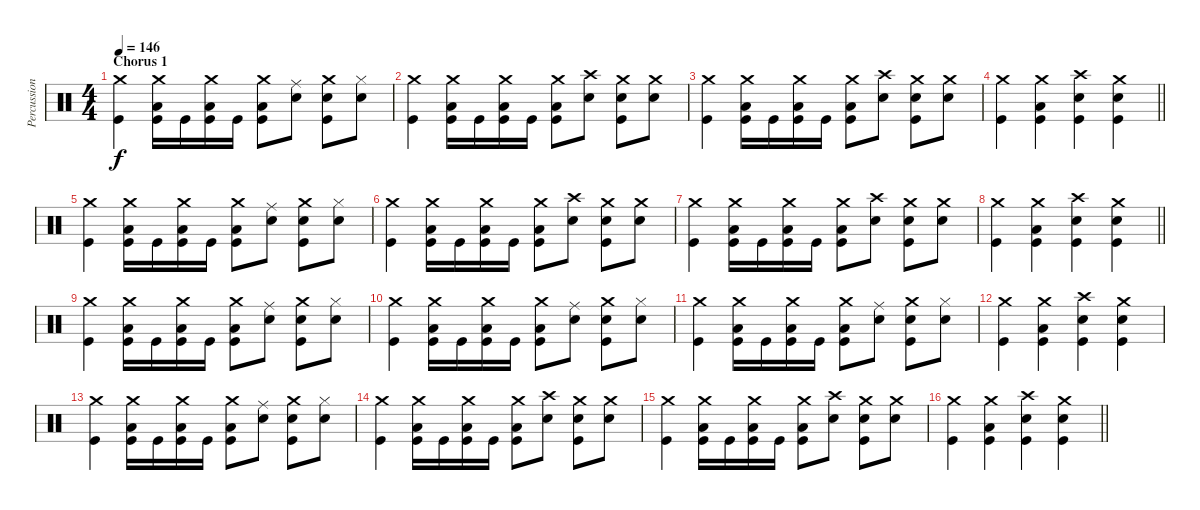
\track ("Percussion" "Percussion") {instrument percussion}
\staff {score}
\articulation defaults
\ts (4 4)
\section ("" "Chorus 1")
\tempo 146
\clef neutral
\ks c
("Crash medium (hit)" "Kick (hit)").4{dy f} ("Crash medium (hit)" "Low Floor Tom (hit)" "Kick (hit)").16 "Kick (hit)".16 ("Crash medium (hit)" "Low Floor Tom (hit)" "Kick (hit)").16 "Kick (hit)".16 ("Crash medium (hit)" "Low Floor Tom (hit)" "Kick (hit)").8 ("Ride (middle)" "Snare (hit) 2").8 ("Crash medium (hit)" "Snare (hit) 2" "Kick (hit)").8 ("Hi-Hat (closed)" "Snare (hit) 2").8 |
("Crash medium (hit)" "Kick (hit)").4 ("Crash medium (hit)" "Low Floor Tom (hit)" "Kick (hit)").16 "Kick (hit)".16 ("Crash medium (hit)" "Low Floor Tom (hit)" "Kick (hit)").16 "Kick (hit)".16 ("Crash medium (hit)" "Low Floor Tom (hit)" "Kick (hit)").8 ("Crash high (hit)" "Snare (hit) 2").8 ("Crash medium (hit)" "Snare (hit) 2" "Kick (hit)").8 ("Crash medium (hit)" "Snare (hit) 2").8 |
("Crash medium (hit)" "Kick (hit)").4 ("Crash medium (hit)" "Low Floor Tom (hit)" "Kick (hit)").16 "Kick (hit)".16 ("Crash medium (hit)" "Low Floor Tom (hit)" "Kick (hit)").16 "Kick (hit)".16 ("Crash medium (hit)" "Low Floor Tom (hit)" "Kick (hit)").8 ("Crash high (hit)" "Snare (hit) 2").8 ("Crash medium (hit)" "Snare (hit) 2" "Kick (hit)").8 ("Crash medium (hit)" "Snare (hit) 2").8 |
\barLineRight lightlight
("Crash medium (hit)" "Kick (hit)").4 ("Crash medium (hit)" "Low Floor Tom (hit)" "Kick (hit)").4 ("Crash high (hit)" "Snare (hit) 2" "Kick (hit)").4 ("Crash medium (hit)" "Snare (hit) 2" "Kick (hit)").4 |
("Crash medium (hit)" "Kick (hit)").4 ("Crash medium (hit)" "Low Floor Tom (hit)" "Kick (hit)").16 "Kick (hit)".16 ("Crash medium (hit)" "Low Floor Tom (hit)" "Kick (hit)").16 "Kick (hit)".16 ("Crash medium (hit)" "Low Floor Tom (hit)" "Kick (hit)").8 ("Ride (middle)" "Snare (hit) 2").8 ("Crash medium (hit)" "Snare (hit) 2" "Kick (hit)").8 ("Hi-Hat (closed)" "Snare (hit) 2").8 |
("Crash medium (hit)" "Kick (hit)").4 ("Crash medium (hit)" "Low Floor Tom (hit)" "Kick (hit)").16 "Kick (hit)".16 ("Crash medium (hit)" "Low Floor Tom (hit)" "Kick (hit)").16 "Kick (hit)".16 ("Crash medium (hit)" "Low Floor Tom (hit)" "Kick (hit)").8 ("Crash high (hit)" "Snare (hit) 2").8 ("Crash medium (hit)" "Snare (hit) 2" "Kick (hit)").8 ("Crash medium (hit)" "Snare (hit) 2").8 |
("Crash medium (hit)" "Kick (hit)").4 ("Crash medium (hit)" "Low Floor Tom (hit)" "Kick (hit)").16 "Kick (hit)".16 ("Crash medium (hit)" "Low Floor Tom (hit)" "Kick (hit)").16 "Kick (hit)".16 ("Crash medium (hit)" "Low Floor Tom (hit)" "Kick (hit)").8 ("Crash high (hit)" "Snare (hit) 2").8 ("Crash medium (hit)" "Snare (hit) 2" "Kick (hit)").8 ("Crash medium (hit)" "Snare (hit) 2").8 |
\barLineRight lightlight
("Crash medium (hit)" "Kick (hit)").4 ("Crash medium (hit)" "Low Floor Tom (hit)" "Kick (hit)").4 ("Crash high (hit)" "Snare (hit) 2" "Kick (hit)").4 ("Crash medium (hit)" "Snare (hit) 2" "Kick (hit)").4 |
("Crash medium (hit)" "Kick (hit)").4 ("Crash medium (hit)" "Low Floor Tom (hit)" "Kick (hit)").16 "Kick (hit)".16 ("Crash medium (hit)" "Low Floor Tom (hit)" "Kick (hit)").16 "Kick (hit)".16 ("Crash medium (hit)" "Low Floor Tom (hit)" "Kick (hit)").8 ("Ride (middle)" "Snare (hit) 2").8 ("Crash medium (hit)" "Snare (hit) 2" "Kick (hit)").8 ("Hi-Hat (closed)" "Snare (hit) 2").8 |
("Crash medium (hit)" "Kick (hit)").4 ("Crash medium (hit)" "Low Floor Tom (hit)" "Kick (hit)").16 "Kick (hit)".16 ("Crash medium (hit)" "Low Floor Tom (hit)" "Kick (hit)").16 "Kick (hit)".16 ("Crash medium (hit)" "Low Floor Tom (hit)" "Kick (hit)").8 ("Ride (middle)" "Snare (hit) 2").8 ("Crash medium (hit)" "Snare (hit) 2" "Kick (hit)").8 ("Hi-Hat (closed)" "Snare (hit) 2").8 |
("Crash medium (hit)" "Kick (hit)").4 ("Crash medium (hit)" "Low Floor Tom (hit)" "Kick (hit)").16 "Kick (hit)".16 ("Crash medium (hit)" "Low Floor Tom (hit)" "Kick (hit)").16 "Kick (hit)".16 ("Crash medium (hit)" "Low Floor Tom (hit)" "Kick (hit)").8 ("Ride (middle)" "Snare (hit) 2").8 ("Crash medium (hit)" "Snare (hit) 2" "Kick (hit)").8 ("Hi-Hat (closed)" "Snare (hit) 2").8 |
("Crash medium (hit)" "Kick (hit)").4 ("Crash medium (hit)" "Low Floor Tom (hit)" "Kick (hit)").4 ("Crash high (hit)" "Snare (hit) 2" "Kick (hit)").4 ("Crash medium (hit)" "Snare (hit) 2" "Kick (hit)").4 |
("Crash medium (hit)" "Kick (hit)").4 ("Crash medium (hit)" "Low Floor Tom (hit)" "Kick (hit)").16 "Kick (hit)".16 ("Crash medium (hit)" "Low Floor Tom (hit)" "Kick (hit)").16 "Kick (hit)".16 ("Crash medium (hit)" "Low Floor Tom (hit)" "Kick (hit)").8 ("Ride (middle)" "Snare (hit) 2").8 ("Crash medium (hit)" "Snare (hit) 2" "Kick (hit)").8 ("Hi-Hat (closed)" "Snare (hit) 2").8 |
("Crash medium (hit)" "Kick (hit)").4 ("Crash medium (hit)" "Low Floor Tom (hit)" "Kick (hit)").16 "Kick (hit)".16 ("Crash medium (hit)" "Low Floor Tom (hit)" "Kick (hit)").16 "Kick (hit)".16 ("Crash medium (hit)" "Low Floor Tom (hit)" "Kick (hit)").8 ("Crash high (hit)" "Snare (hit) 2").8 ("Crash medium (hit)" "Snare (hit) 2" "Kick (hit)").8 ("Crash medium (hit)" "Snare (hit) 2").8 |
("Crash medium (hit)" "Kick (hit)").4 ("Crash medium (hit)" "Low Floor Tom (hit)" "Kick (hit)").16 "Kick (hit)".16 ("Crash medium (hit)" "Low Floor Tom (hit)" "Kick (hit)").16 "Kick (hit)".16 ("Crash medium (hit)" "Low Floor Tom (hit)" "Kick (hit)").8 ("Crash high (hit)" "Snare (hit) 2").8 ("Crash medium (hit)" "Snare (hit) 2" "Kick (hit)").8 ("Crash medium (hit)" "Snare (hit) 2").8 |
\barLineRight lightlight
("Crash medium (hit)" "Kick (hit)").4 ("Crash medium (hit)" "Low Floor Tom (hit)" "Kick (hit)").4 ("Crash high (hit)" "Snare (hit) 2" "Kick (hit)").4 ("Crash medium (hit)" "Snare (hit) 2" "Kick (hit)").4
